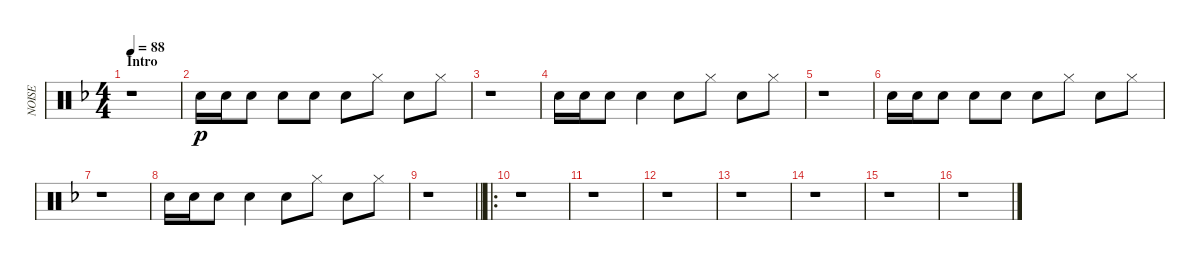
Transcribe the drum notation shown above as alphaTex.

\track ("NOISE" "NOISE") {instrument percussion}
\staff {score}
\articulation defaults
\ts (4 4)
\section ("" "Intro")
\tempo 88
\clef neutral
\ks dminor
r.1{dy p} |
"Snare (hit) 2".16 "Snare (hit) 2".16 "Snare (hit) 2".8 "Snare (hit) 2".8 "Snare (hit) 2".8 "Snare (hit) 2".8 "Hi-Hat (closed)".8 "Snare (hit) 2".8 "Hi-Hat (closed)".8 |
r.1 |
"Snare (hit) 2".16 "Snare (hit) 2".16 "Snare (hit) 2".8 "Snare (hit) 2".4 "Snare (hit) 2".8 "Hi-Hat (closed)".8 "Snare (hit) 2".8 "Hi-Hat (closed)".8 |
r.1 |
"Snare (hit) 2".16 "Snare (hit) 2".16 "Snare (hit) 2".8 "Snare (hit) 2".8 "Snare (hit) 2".8 "Snare (hit) 2".8 "Hi-Hat (closed)".8 "Snare (hit) 2".8 "Hi-Hat (closed)".8 |
r.1 |
"Snare (hit) 2".16 "Snare (hit) 2".16 "Snare (hit) 2".8 "Snare (hit) 2".4 "Snare (hit) 2".8 "Hi-Hat (closed)".8 "Snare (hit) 2".8 "Hi-Hat (closed)".8 |
\barLineRight lightlight
r.1 |
\ro
\section ("" "")
r.1 |
r.1 |
r.1 |
r.1 |
r.1 |
r.1 |
r.1
